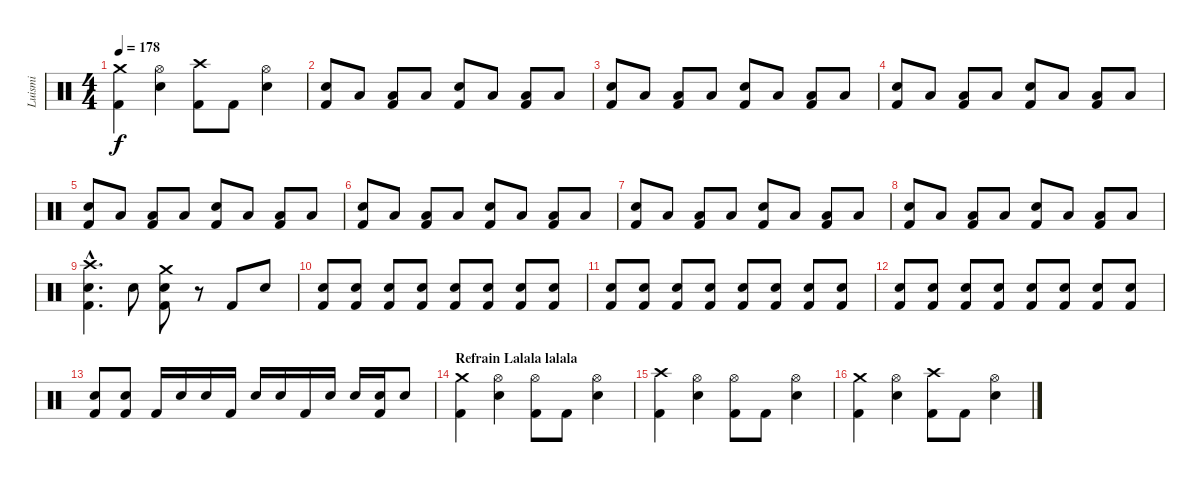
\track ("Luismi" "Luismi") {instrument percussion}
\staff {score}
\articulation defaults
\ts (4 4)
\tempo 178
\clef neutral
\ks c
("Crash medium (hit)" "Kick (hit) 2").4{dy f} ("Hi-Hat (open)" "Snare (hit) 2").4 ("Crash high (hit)" "Kick (hit) 2").8 "Kick (hit) 2".8 ("Hi-Hat (open)" "Snare (hit) 2").4 |
("Snare (hit) 2" "Kick (hit) 2").8 "Low Tom (hit)".8 ("Low Floor Tom (hit)" "Kick (hit) 2").8 "Low Floor Tom (hit)".8 ("Snare (hit) 2" "Kick (hit) 2").8 "Low Tom (hit)".8 ("Low Floor Tom (hit)" "Kick (hit) 2").8 "Low Floor Tom (hit)".8 |
("Snare (hit) 2" "Kick (hit) 2").8 "Low Tom (hit)".8 ("Low Floor Tom (hit)" "Kick (hit) 2").8 "Low Floor Tom (hit)".8 ("Snare (hit) 2" "Kick (hit) 2").8 "Low Tom (hit)".8 ("Low Floor Tom (hit)" "Kick (hit) 2").8 "Low Floor Tom (hit)".8 |
("Snare (hit) 2" "Kick (hit) 2").8 "Low Tom (hit)".8 ("Low Floor Tom (hit)" "Kick (hit) 2").8 "Low Floor Tom (hit)".8 ("Snare (hit) 2" "Kick (hit) 2").8 "Low Tom (hit)".8 ("Low Floor Tom (hit)" "Kick (hit) 2").8 "Low Floor Tom (hit)".8 |
("Snare (hit) 2" "Kick (hit) 2").8 "Low Tom (hit)".8 ("Low Floor Tom (hit)" "Kick (hit) 2").8 "Low Floor Tom (hit)".8 ("Snare (hit) 2" "Kick (hit) 2").8 "Low Tom (hit)".8 ("Low Floor Tom (hit)" "Kick (hit) 2").8 "Low Floor Tom (hit)".8 |
("Snare (hit) 2" "Kick (hit) 2").8 "Low Tom (hit)".8 ("Low Floor Tom (hit)" "Kick (hit) 2").8 "Low Floor Tom (hit)".8 ("Snare (hit) 2" "Kick (hit) 2").8 "Low Tom (hit)".8 ("Low Floor Tom (hit)" "Kick (hit) 2").8 "Low Floor Tom (hit)".8 |
("Snare (hit) 2" "Kick (hit) 2").8 "Low Tom (hit)".8 ("Low Floor Tom (hit)" "Kick (hit) 2").8 "Low Floor Tom (hit)".8 ("Snare (hit) 2" "Kick (hit) 2").8 "Low Tom (hit)".8 ("Low Floor Tom (hit)" "Kick (hit) 2").8 "Low Floor Tom (hit)".8 |
("Snare (hit) 2" "Kick (hit) 2").8 "Low Tom (hit)".8 ("Low Floor Tom (hit)" "Kick (hit) 2").8 "Low Floor Tom (hit)".8 ("Snare (hit) 2" "Kick (hit) 2").8 "Low Tom (hit)".8 ("Low Floor Tom (hit)" "Kick (hit) 2").8 "Low Floor Tom (hit)".8 |
("Crash high (hit)"{hac} "Snare (hit) 2"{hac} "Kick (hit) 2"{hac}).4{d} "Snare (hit) 2".8 ("Crash medium (hit)" "Snare (hit) 2" "Kick (hit) 2").8 r.8 "Kick (hit) 2".8 "Snare (hit) 2".8 |
("Snare (hit) 2" "Kick (hit) 2").8{volume 7} ("Snare (hit) 2" "Kick (hit) 2").8{volume 14} ("Snare (hit) 2" "Kick (hit) 2").8 ("Snare (hit) 2" "Kick (hit) 2").8 ("Snare (hit) 2" "Kick (hit) 2").8 ("Snare (hit) 2" "Kick (hit) 2").8 ("Snare (hit) 2" "Kick (hit) 2").8 ("Snare (hit) 2" "Kick (hit) 2").8 |
("Snare (hit) 2" "Kick (hit) 2").8 ("Snare (hit) 2" "Kick (hit) 2").8 ("Snare (hit) 2" "Kick (hit) 2").8 ("Snare (hit) 2" "Kick (hit) 2").8 ("Snare (hit) 2" "Kick (hit) 2").8 ("Snare (hit) 2" "Kick (hit) 2").8 ("Snare (hit) 2" "Kick (hit) 2").8 ("Snare (hit) 2" "Kick (hit) 2").8 |
("Snare (hit) 2" "Kick (hit) 2").8 ("Snare (hit) 2" "Kick (hit) 2").8 ("Snare (hit) 2" "Kick (hit) 2").8 ("Snare (hit) 2" "Kick (hit) 2").8 ("Snare (hit) 2" "Kick (hit) 2").8 ("Snare (hit) 2" "Kick (hit) 2").8 ("Snare (hit) 2" "Kick (hit) 2").8 ("Snare (hit) 2" "Kick (hit) 2").8 |
("Snare (hit) 2" "Kick (hit) 2").8 ("Snare (hit) 2" "Kick (hit) 2").8 "Kick (hit) 2".16 "Snare (hit) 2".16 "Snare (hit) 2".16 "Kick (hit) 2".16 "Snare (hit) 2".16 "Snare (hit) 2".16 "Kick (hit) 2".16 "Snare (hit) 2".16 "Snare (hit) 2".16 ("Snare (hit) 2" "Kick (hit) 2").16 "Snare (hit) 2".8 |
\section ("" "Refrain Lalala lalala ")
("Crash medium (hit)" "Kick (hit) 2").4 ("Hi-Hat (open)" "Snare (hit) 2").4 ("Hi-Hat (open)" "Kick (hit) 2").8 "Kick (hit) 2".8 ("Hi-Hat (open)" "Snare (hit) 2").4 |
("Crash high (hit)" "Kick (hit) 2").4 ("Hi-Hat (open)" "Snare (hit) 2").4 ("Hi-Hat (open)" "Kick (hit) 2").8 "Kick (hit) 2".8 ("Hi-Hat (open)" "Snare (hit) 2").4 |
("Crash medium (hit)" "Kick (hit) 2").4 ("Hi-Hat (open)" "Snare (hit) 2").4 ("Crash high (hit)" "Kick (hit) 2").8 "Kick (hit) 2".8 ("Hi-Hat (open)" "Snare (hit) 2").4
